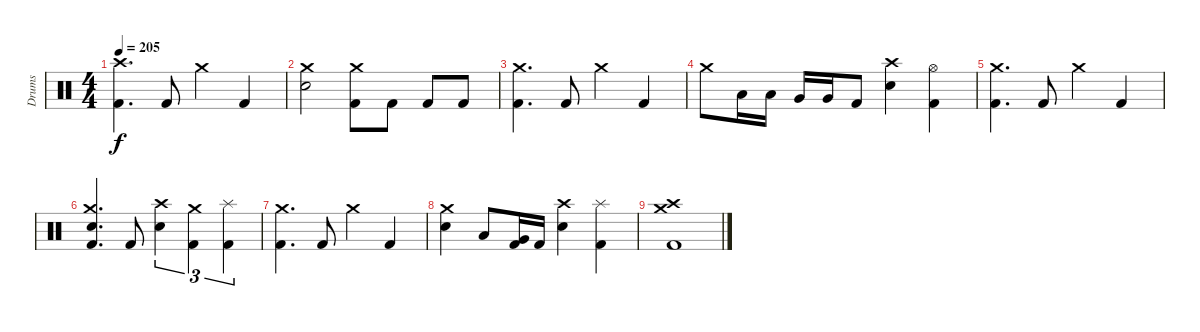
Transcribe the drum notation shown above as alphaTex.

\track ("Drums" "Drums") {instrument percussion}
\staff {score}
\articulation defaults
\ts (4 4)
\tempo 205
\clef neutral
\ks c
("Crash high (hit)" "Kick (hit) 2").4{d dy f} "Kick (hit) 2".8 "Crash medium (hit)".4 "Kick (hit) 2".4 |
("Crash medium (hit)" "Electric Snare (hit)").2 ("Crash medium (hit)" "Kick (hit) 2").8 "Kick (hit) 2".8 "Kick (hit) 2".8 "Kick (hit) 2".8 |
("Crash medium (hit)" "Kick (hit) 2").4{d} "Kick (hit) 2".8 "Crash medium (hit)".4 "Kick (hit) 2".4 |
"Crash medium (hit)".8 "Low Tom (hit)".16 "Low Tom (hit)".16 "Very Low Tom (hit)".16 "Very Low Tom (hit)".16 "Kick (hit) 2".8 ("Crash high (hit)" "Electric Snare (hit)").4 ("Hi-Hat (open)" "Kick (hit) 2").4 |
("Crash medium (hit)" "Kick (hit) 2").4{d} "Kick (hit) 2".8 "Crash medium (hit)".4 "Kick (hit) 2".4 |
("Crash medium (hit)" "Electric Snare (hit)" "Kick (hit) 2").4{d} "Kick (hit) 2".8 ("Crash high (hit)" "Electric Snare (hit)").4{tu (3 2)} ("Crash medium (hit)" "Kick (hit) 2").4{tu (3 2)} ("Splash (hit)" "Kick (hit) 2").4{tu (3 2)} |
("Crash medium (hit)" "Kick (hit) 2").4{d} "Kick (hit) 2".8 "Crash medium (hit)".4 "Kick (hit) 2".4 |
("Crash medium (hit)" "Electric Snare (hit)").4 "Low Tom (hit)".8 ("Very Low Tom (hit)" "Kick (hit) 2").16 "Kick (hit) 2".16 ("Crash high (hit)" "Electric Snare (hit)").4 ("Splash (hit)" "Kick (hit) 2").4 |
("Crash high (hit)" "Crash medium (hit)" "Kick (hit) 2").1
